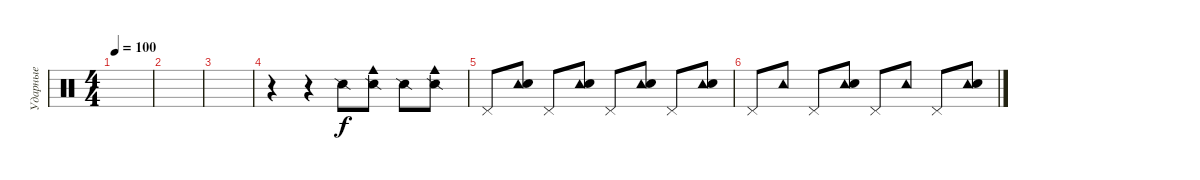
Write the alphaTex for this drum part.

\track ("Ударные" "Ударные") {instrument percussion}
\staff {score}
\articulation defaults
\ts (4 4)
\tempo 100
\clef neutral
\ks c
|
|
|
r.4 r.4 "Snare (side stick) 2".8 ("Snare (side stick) 2" "Cowbell medium (hit)").8 "Snare (side stick) 2".8 ("Snare (side stick) 2" "Cowbell medium (hit)").8 |
"Pedal Hi-Hat (hit)".8 ("Tambourine (hit)" "Snare (hit) 2").8 "Pedal Hi-Hat (hit)".8 ("Tambourine (hit)" "Snare (hit) 2").8 "Pedal Hi-Hat (hit)".8 ("Tambourine (hit)" "Snare (hit) 2").8 "Pedal Hi-Hat (hit)".8 ("Tambourine (hit)" "Snare (hit) 2").8 |
"Pedal Hi-Hat (hit)".8 "Tambourine (hit)".8 "Pedal Hi-Hat (hit)".8 ("Tambourine (hit)" "Snare (hit) 2").8 "Pedal Hi-Hat (hit)".8 "Tambourine (hit)".8 "Pedal Hi-Hat (hit)".8 ("Tambourine (hit)" "Snare (hit) 2").8
